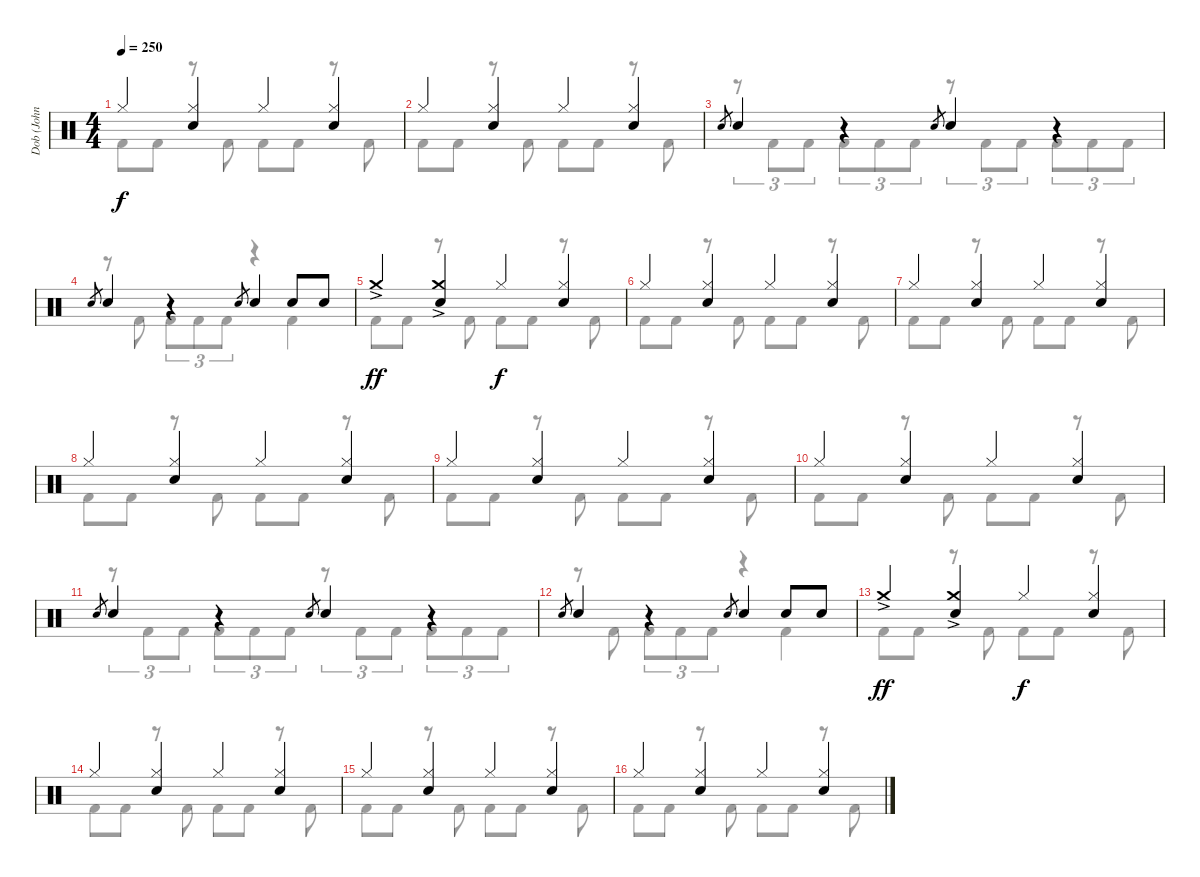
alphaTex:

\track ("Dob (John Macaluso)" "Dob (John ") {instrument percussion}
\staff {score}
\articulation defaults
\voice
\ts (4 4)
\tempo 250
\clef neutral
\ks c "Hi-Hat (closed)".4{dy f}
("Hi-Hat (closed)" "Electric Snare (hit)").4 "Hi-Hat (closed)".4 ("Hi-Hat (closed)" "Electric Snare (hit)").4 |
"Hi-Hat (closed)".4 ("Hi-Hat (closed)" "Electric Snare (hit)").4 "Hi-Hat (closed)".4 ("Hi-Hat (closed)" "Electric Snare (hit)").4 |
"Electric Snare (hit)".8{gr} "Electric Snare (hit)".4 r.4 "Electric Snare (hit)".8{gr} "Electric Snare (hit)".4 r.4 |
"Electric Snare (hit)".8{gr} "Electric Snare (hit)".4 r.4 "Electric Snare (hit)".8{gr} "Electric Snare (hit)".4 "Electric Snare (hit)".8 "Electric Snare (hit)".8 |
"Crash medium (hit)"{ac}.4{dy ff} ("Crash medium (hit)"{ac} "Electric Snare (hit)").4 "Hi-Hat (closed)".4{dy f} ("Hi-Hat (closed)" "Electric Snare (hit)").4 |
"Hi-Hat (closed)".4 ("Hi-Hat (closed)" "Electric Snare (hit)").4 "Hi-Hat (closed)".4 ("Hi-Hat (closed)" "Electric Snare (hit)").4 |
"Hi-Hat (closed)".4 ("Hi-Hat (closed)" "Electric Snare (hit)").4 "Hi-Hat (closed)".4 ("Hi-Hat (closed)" "Electric Snare (hit)").4 |
"Hi-Hat (closed)".4 ("Hi-Hat (closed)" "Electric Snare (hit)").4 "Hi-Hat (closed)".4 ("Hi-Hat (closed)" "Electric Snare (hit)").4 |
"Hi-Hat (closed)".4 ("Hi-Hat (closed)" "Electric Snare (hit)").4 "Hi-Hat (closed)".4 ("Hi-Hat (closed)" "Electric Snare (hit)").4 |
"Hi-Hat (closed)".4 ("Hi-Hat (closed)" "Electric Snare (hit)").4 "Hi-Hat (closed)".4 ("Hi-Hat (closed)" "Electric Snare (hit)").4 |
"Electric Snare (hit)".8{gr} "Electric Snare (hit)".4 r.4 "Electric Snare (hit)".8{gr} "Electric Snare (hit)".4 r.4 |
"Electric Snare (hit)".8{gr} "Electric Snare (hit)".4 r.4 "Electric Snare (hit)".8{gr} "Electric Snare (hit)".4 "Electric Snare (hit)".8 "Electric Snare (hit)".8 |
"Crash medium (hit)"{ac}.4{dy ff} ("Crash medium (hit)"{ac} "Electric Snare (hit)").4 "Hi-Hat (closed)".4{dy f} ("Hi-Hat (closed)" "Electric Snare (hit)").4 |
"Hi-Hat (closed)".4 ("Hi-Hat (closed)" "Electric Snare (hit)").4 "Hi-Hat (closed)".4 ("Hi-Hat (closed)" "Electric Snare (hit)").4 |
"Hi-Hat (closed)".4 ("Hi-Hat (closed)" "Electric Snare (hit)").4 "Hi-Hat (closed)".4 ("Hi-Hat (closed)" "Electric Snare (hit)").4 |
"Hi-Hat (closed)".4 ("Hi-Hat (closed)" "Electric Snare (hit)").4 "Hi-Hat (closed)".4 ("Hi-Hat (closed)" "Electric Snare (hit)").4
\voice
\clef neutral
\ottava regular
\simile none
\ks c "Kick (hit) 2".8{dy f} "Kick (hit) 2".8
r.8 "Kick (hit) 2".8 "Kick (hit) 2".8 "Kick (hit) 2".8 r.8 "Kick (hit) 2".8 |
"Kick (hit) 2".8 "Kick (hit) 2".8 r.8 "Kick (hit) 2".8 "Kick (hit) 2".8 "Kick (hit) 2".8 r.8 "Kick (hit) 2".8 |
r.8{tu (3 2)} "Kick (hit) 2".8{tu (3 2)} "Kick (hit) 2".8{tu (3 2)} "Kick (hit) 2".8{tu (3 2)} "Kick (hit) 2".8{tu (3 2)} "Kick (hit) 2".8{tu (3 2)} r.8{tu (3 2)} "Kick (hit) 2".8{tu (3 2)} "Kick (hit) 2".8{tu (3 2)} "Kick (hit) 2".8{tu (3 2)} "Kick (hit) 2".8{tu (3 2)} "Kick (hit) 2".8{tu (3 2)} |
r.8 "Kick (hit) 2".8 "Kick (hit) 2".8{tu (3 2)} "Kick (hit) 2".8{tu (3 2)} "Kick (hit) 2".8{tu (3 2)} r.4 "Kick (hit) 2".4 |
"Kick (hit) 2".8 "Kick (hit) 2".8 r.8 "Kick (hit) 2".8 "Kick (hit) 2".8 "Kick (hit) 2".8 r.8 "Kick (hit) 2".8 |
"Kick (hit) 2".8 "Kick (hit) 2".8 r.8 "Kick (hit) 2".8 "Kick (hit) 2".8 "Kick (hit) 2".8 r.8 "Kick (hit) 2".8 |
"Kick (hit) 2".8 "Kick (hit) 2".8 r.8 "Kick (hit) 2".8 "Kick (hit) 2".8 "Kick (hit) 2".8 r.8 "Kick (hit) 2".8 |
"Kick (hit) 2".8 "Kick (hit) 2".8 r.8 "Kick (hit) 2".8 "Kick (hit) 2".8 "Kick (hit) 2".8 r.8 "Kick (hit) 2".8 |
"Kick (hit) 2".8 "Kick (hit) 2".8 r.8 "Kick (hit) 2".8 "Kick (hit) 2".8 "Kick (hit) 2".8 r.8 "Kick (hit) 2".8 |
"Kick (hit) 2".8 "Kick (hit) 2".8 r.8 "Kick (hit) 2".8 "Kick (hit) 2".8 "Kick (hit) 2".8 r.8 "Kick (hit) 2".8 |
r.8{tu (3 2)} "Kick (hit) 2".8{tu (3 2)} "Kick (hit) 2".8{tu (3 2)} "Kick (hit) 2".8{tu (3 2)} "Kick (hit) 2".8{tu (3 2)} "Kick (hit) 2".8{tu (3 2)} r.8{tu (3 2)} "Kick (hit) 2".8{tu (3 2)} "Kick (hit) 2".8{tu (3 2)} "Kick (hit) 2".8{tu (3 2)} "Kick (hit) 2".8{tu (3 2)} "Kick (hit) 2".8{tu (3 2)} |
r.8 "Kick (hit) 2".8 "Kick (hit) 2".8{tu (3 2)} "Kick (hit) 2".8{tu (3 2)} "Kick (hit) 2".8{tu (3 2)} r.4 "Kick (hit) 2".4 |
"Kick (hit) 2".8 "Kick (hit) 2".8 r.8 "Kick (hit) 2".8 "Kick (hit) 2".8 "Kick (hit) 2".8 r.8 "Kick (hit) 2".8 |
"Kick (hit) 2".8 "Kick (hit) 2".8 r.8 "Kick (hit) 2".8 "Kick (hit) 2".8 "Kick (hit) 2".8 r.8 "Kick (hit) 2".8 |
"Kick (hit) 2".8 "Kick (hit) 2".8 r.8 "Kick (hit) 2".8 "Kick (hit) 2".8 "Kick (hit) 2".8 r.8 "Kick (hit) 2".8 |
"Kick (hit) 2".8 "Kick (hit) 2".8 r.8 "Kick (hit) 2".8 "Kick (hit) 2".8 "Kick (hit) 2".8 r.8 "Kick (hit) 2".8
